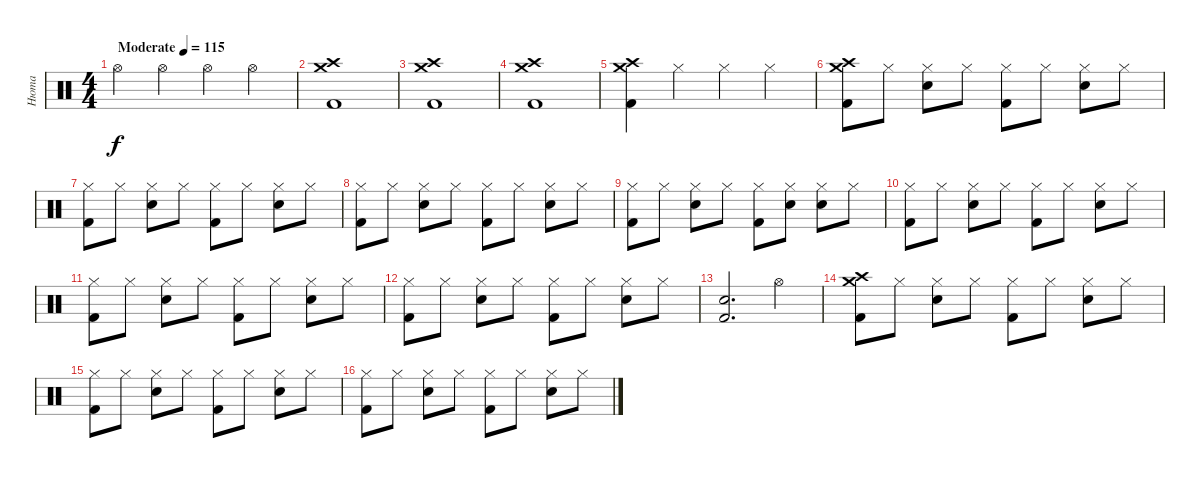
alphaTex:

\track ("Нюта" "Нюта") {instrument percussion}
\staff {score}
\articulation defaults
\ts (4 4)
\tempo (115 "Moderate")
\clef neutral
\ks c "Hi-Hat (open)".4{dy f} "Hi-Hat (open)".4 "Hi-Hat (open)".4 "Hi-Hat (open)".4
|
("Crash medium (hit)" "Kick (hit) 2" "Crash high (hit)").1 |
("Crash high (hit)" "Kick (hit) 2" "Crash medium (hit)").1 |
("Crash high (hit)" "Kick (hit) 2" "Crash medium (hit)").1 |
("Crash high (hit)" "Kick (hit) 2" "Crash medium (hit)").4 "Hi-Hat (closed)".4 "Hi-Hat (closed)".4 "Hi-Hat (closed)".4 |
("Crash high (hit)" "Kick (hit) 2" "Crash medium (hit)").8 "Hi-Hat (closed)".8 ("Hi-Hat (closed)" "Electric Snare (hit)").8 "Hi-Hat (closed)".8 ("Hi-Hat (closed)" "Kick (hit) 2").8 "Hi-Hat (closed)".8 ("Hi-Hat (closed)" "Electric Snare (hit)").8 "Hi-Hat (closed)".8 |
("Hi-Hat (closed)" "Kick (hit) 2").8 "Hi-Hat (closed)".8 ("Hi-Hat (closed)" "Electric Snare (hit)").8 "Hi-Hat (closed)".8 ("Hi-Hat (closed)" "Kick (hit) 2").8 "Hi-Hat (closed)".8 ("Hi-Hat (closed)" "Electric Snare (hit)").8 "Hi-Hat (closed)".8 |
("Hi-Hat (closed)" "Kick (hit) 2").8 "Hi-Hat (closed)".8 ("Hi-Hat (closed)" "Electric Snare (hit)").8 "Hi-Hat (closed)".8 ("Hi-Hat (closed)" "Kick (hit) 2").8 "Hi-Hat (closed)".8 ("Hi-Hat (closed)" "Electric Snare (hit)").8 "Hi-Hat (closed)".8 |
("Hi-Hat (closed)" "Kick (hit) 2").8 "Hi-Hat (closed)".8 ("Hi-Hat (closed)" "Electric Snare (hit)").8 "Hi-Hat (closed)".8 ("Hi-Hat (closed)" "Kick (hit) 2").8 ("Hi-Hat (closed)" "Electric Snare (hit)").8 ("Hi-Hat (closed)" "Electric Snare (hit)").8 "Hi-Hat (closed)".8 |
("Hi-Hat (closed)" "Kick (hit) 2").8 "Hi-Hat (closed)".8 ("Hi-Hat (closed)" "Electric Snare (hit)").8 "Hi-Hat (closed)".8 ("Hi-Hat (closed)" "Kick (hit) 2").8 "Hi-Hat (closed)".8 ("Hi-Hat (closed)" "Electric Snare (hit)").8 "Hi-Hat (closed)".8 |
("Hi-Hat (closed)" "Kick (hit) 2").8 "Hi-Hat (closed)".8 ("Hi-Hat (closed)" "Electric Snare (hit)").8 "Hi-Hat (closed)".8 ("Hi-Hat (closed)" "Kick (hit) 2").8 "Hi-Hat (closed)".8 ("Hi-Hat (closed)" "Electric Snare (hit)").8 "Hi-Hat (closed)".8 |
("Hi-Hat (closed)" "Kick (hit) 2").8 "Hi-Hat (closed)".8 ("Hi-Hat (closed)" "Electric Snare (hit)").8 "Hi-Hat (closed)".8 ("Hi-Hat (closed)" "Kick (hit) 2").8 "Hi-Hat (closed)".8 ("Hi-Hat (closed)" "Electric Snare (hit)").8 "Hi-Hat (closed)".8 |
("Electric Snare (hit)" "Kick (hit) 2").2{d} "Hi-Hat (open)".4 |
("Crash high (hit)" "Kick (hit) 2" "Crash medium (hit)").8 "Hi-Hat (closed)".8 ("Hi-Hat (closed)" "Electric Snare (hit)").8 "Hi-Hat (closed)".8 ("Hi-Hat (closed)" "Kick (hit) 2").8 "Hi-Hat (closed)".8 ("Hi-Hat (closed)" "Electric Snare (hit)").8 "Hi-Hat (closed)".8 |
("Hi-Hat (closed)" "Kick (hit) 2").8 "Hi-Hat (closed)".8 ("Hi-Hat (closed)" "Electric Snare (hit)").8 "Hi-Hat (closed)".8 ("Hi-Hat (closed)" "Kick (hit) 2").8 "Hi-Hat (closed)".8 ("Hi-Hat (closed)" "Electric Snare (hit)").8 "Hi-Hat (closed)".8 |
("Hi-Hat (closed)" "Kick (hit) 2").8 "Hi-Hat (closed)".8 ("Hi-Hat (closed)" "Electric Snare (hit)").8 "Hi-Hat (closed)".8 ("Hi-Hat (closed)" "Kick (hit) 2").8 "Hi-Hat (closed)".8 ("Hi-Hat (closed)" "Electric Snare (hit)").8 "Hi-Hat (closed)".8
